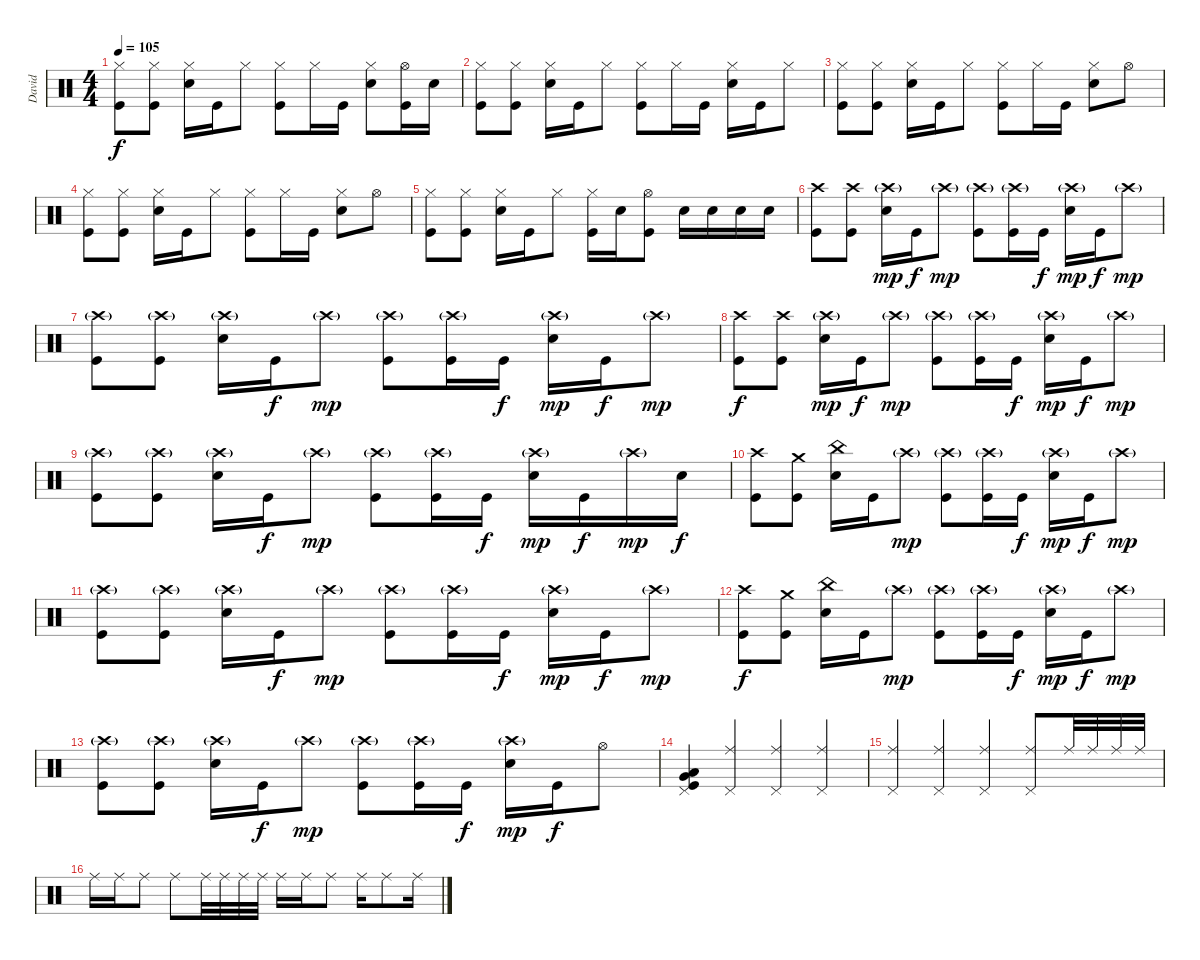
\track ("David" "David") {instrument percussion}
\staff {score}
\articulation defaults
\ts (4 4)
\tempo 105
\clef neutral
\ks c
("Hi-Hat (closed)" "Kick (hit)").8{dy f} ("Hi-Hat (closed)" "Kick (hit)").8 ("Hi-Hat (closed)" "Snare (hit) 2").16 "Kick (hit)".16 "Hi-Hat (closed)".8 ("Hi-Hat (closed)" "Kick (hit)").8 "Hi-Hat (closed)".16 "Kick (hit)".16 ("Hi-Hat (closed)" "Snare (hit) 2").8 ("Kick (hit)" "Hi-Hat (open)").16 "Snare (hit) 2".16 |
("Hi-Hat (closed)" "Kick (hit)").8 ("Hi-Hat (closed)" "Kick (hit)").8 ("Hi-Hat (closed)" "Snare (hit) 2").16 "Kick (hit)".16 "Hi-Hat (closed)".8 ("Hi-Hat (closed)" "Kick (hit)").8 "Hi-Hat (closed)".16 "Kick (hit)".16 ("Hi-Hat (closed)" "Snare (hit) 2").16 "Kick (hit)".16 "Hi-Hat (closed)".8 |
("Hi-Hat (closed)" "Kick (hit)").8 ("Hi-Hat (closed)" "Kick (hit)").8 ("Hi-Hat (closed)" "Snare (hit) 2").16 "Kick (hit)".16 "Hi-Hat (closed)".8 ("Hi-Hat (closed)" "Kick (hit)").8 "Hi-Hat (closed)".16 "Kick (hit)".16 ("Hi-Hat (closed)" "Snare (hit) 2").8 "Hi-Hat (open)".8 |
("Hi-Hat (closed)" "Kick (hit)").8 ("Hi-Hat (closed)" "Kick (hit)").8 ("Hi-Hat (closed)" "Snare (hit) 2").16 "Kick (hit)".16 "Hi-Hat (closed)".8 ("Hi-Hat (closed)" "Kick (hit)").8 "Hi-Hat (closed)".16 "Kick (hit)".16 ("Hi-Hat (closed)" "Snare (hit) 2").8 "Hi-Hat (open)".8 |
("Hi-Hat (closed)" "Kick (hit)").8 ("Hi-Hat (closed)" "Kick (hit)").8 ("Hi-Hat (closed)" "Snare (hit) 2").16 "Kick (hit)".16 "Hi-Hat (closed)".8 ("Hi-Hat (closed)" "Kick (hit)").16 "Snare (hit) 2".16 ("Hi-Hat (open)" "Kick (hit)").8 "Snare (hit) 2".16 "Snare (hit) 2".16 "Snare (hit) 2".16 "Snare (hit) 2".16 |
("Crash high (hit)" "Kick (hit)").8 ("Kick (hit)" "Crash high (hit)").8 ("Snare (hit) 2" "Crash high (hit)"{g}).16{dy mp} "Kick (hit)".16{dy f} "Crash high (hit)"{g}.8{dy mp} ("Crash high (hit)"{g} "Kick (hit)").8 ("Kick (hit)" "Crash high (hit)"{g}).16 "Kick (hit)".16{dy f} ("Snare (hit) 2" "Crash high (hit)"{g}).16{dy mp} "Kick (hit)".16{dy f} "Crash high (hit)"{g}.8{dy mp} |
("Crash high (hit)"{g} "Kick (hit)").8 ("Kick (hit)" "Crash high (hit)"{g}).8 ("Snare (hit) 2" "Crash high (hit)"{g}).16 "Kick (hit)".16{dy f} "Crash high (hit)"{g}.8{dy mp} ("Crash high (hit)"{g} "Kick (hit)").8 ("Crash high (hit)"{g} "Kick (hit)").16 "Kick (hit)".16{dy f} ("Crash high (hit)"{g} "Snare (hit) 2").16{dy mp} "Kick (hit)".16{dy f} "Crash high (hit)"{g}.8{dy mp} |
("Crash high (hit)" "Kick (hit)").8{dy f} ("Kick (hit)" "Crash high (hit)").8 ("Snare (hit) 2" "Crash high (hit)"{g}).16{dy mp} "Kick (hit)".16{dy f} "Crash high (hit)"{g}.8{dy mp} ("Crash high (hit)"{g} "Kick (hit)").8 ("Crash high (hit)"{g} "Kick (hit)").16 "Kick (hit)".16{dy f} ("Crash high (hit)"{g} "Snare (hit) 2").16{dy mp} "Kick (hit)".16{dy f} "Crash high (hit)"{g}.8{dy mp} |
("Crash high (hit)"{g} "Kick (hit)").8 ("Kick (hit)" "Crash high (hit)"{g}).8 ("Snare (hit) 2" "Crash high (hit)"{g}).16 "Kick (hit)".16{dy f} "Crash high (hit)"{g}.8{dy mp} ("Crash high (hit)"{g} "Kick (hit)").8 ("Crash high (hit)"{g} "Kick (hit)").16 "Kick (hit)".16{dy f} ("Crash high (hit)"{g} "Snare (hit) 2").16{dy mp} "Kick (hit)".16{dy f} "Crash high (hit)"{g}.16{dy mp} "Snare (hit) 2".16{dy f} |
("Crash high (hit)" "Kick (hit)").8 ("Kick (hit)" "Crash medium (hit)").8 ("Snare (hit) 2" "China (hit)").16 "Kick (hit)".16 "Crash high (hit)"{g}.8{dy mp} ("Crash high (hit)"{g} "Kick (hit)").8 ("Crash high (hit)"{g} "Kick (hit)").16 "Kick (hit)".16{dy f} ("Crash high (hit)"{g} "Snare (hit) 2").16{dy mp} "Kick (hit)".16{dy f} "Crash high (hit)"{g}.8{dy mp} |
("Crash high (hit)"{g} "Kick (hit)").8 ("Kick (hit)" "Crash high (hit)"{g}).8 ("Snare (hit) 2" "Crash high (hit)"{g}).16 "Kick (hit)".16{dy f} "Crash high (hit)"{g}.8{dy mp} ("Crash high (hit)"{g} "Kick (hit)").8 ("Crash high (hit)"{g} "Kick (hit)").16 "Kick (hit)".16{dy f} ("Crash high (hit)"{g} "Snare (hit) 2").16{dy mp} "Kick (hit)".16{dy f} "Crash high (hit)"{g}.8{dy mp} |
("Crash high (hit)" "Kick (hit)").8{dy f} ("Kick (hit)" "Crash medium (hit)").8 ("Snare (hit) 2" "China (hit)").16 "Kick (hit)".16 "Crash high (hit)"{g}.8{dy mp} ("Crash high (hit)"{g} "Kick (hit)").8 ("Crash high (hit)"{g} "Kick (hit)").16 "Kick (hit)".16{dy f} ("Crash high (hit)"{g} "Snare (hit) 2").16{dy mp} "Kick (hit)".16{dy f} "Crash high (hit)"{g}.8{dy mp} |
("Crash high (hit)"{g} "Kick (hit)").8 ("Kick (hit)" "Crash high (hit)"{g}).8 ("Snare (hit) 2" "Crash high (hit)"{g}).16 "Kick (hit)".16{dy f} "Crash high (hit)"{g}.8{dy mp} ("Crash high (hit)"{g} "Kick (hit)").8 ("Crash high (hit)"{g} "Kick (hit)").16 "Kick (hit)".16{dy f} ("Crash high (hit)"{g} "Snare (hit) 2").16{dy mp} "Kick (hit)".16{dy f} "Hi-Hat (open)".8 |
("Kick (hit)" "Low Floor Tom (hit)" "Very Low Tom (hit)" "Pedal Hi-Hat (hit)").4 ("Pedal Hi-Hat (hit)" "Ride (middle)").4 ("Pedal Hi-Hat (hit)" "Ride (middle)").4 ("Pedal Hi-Hat (hit)" "Ride (middle)").4 |
("Pedal Hi-Hat (hit)" "Ride (middle)").4 ("Pedal Hi-Hat (hit)" "Ride (middle)").4 ("Pedal Hi-Hat (hit)" "Ride (middle)").4 ("Pedal Hi-Hat (hit)" "Ride (middle)").8 "Ride (middle)".32 "Ride (middle)".32 "Ride (middle)".32 "Ride (middle)".32 |
"Ride (middle)".16 "Ride (middle)".16 "Ride (middle)".8 "Ride (middle)".8 "Ride (middle)".32 "Ride (middle)".32 "Ride (middle)".32 "Ride (middle)".32 "Ride (middle)".16 "Ride (middle)".16 "Ride (middle)".8 "Ride (middle)".16 "Ride (middle)".8 "Ride (middle)".16
